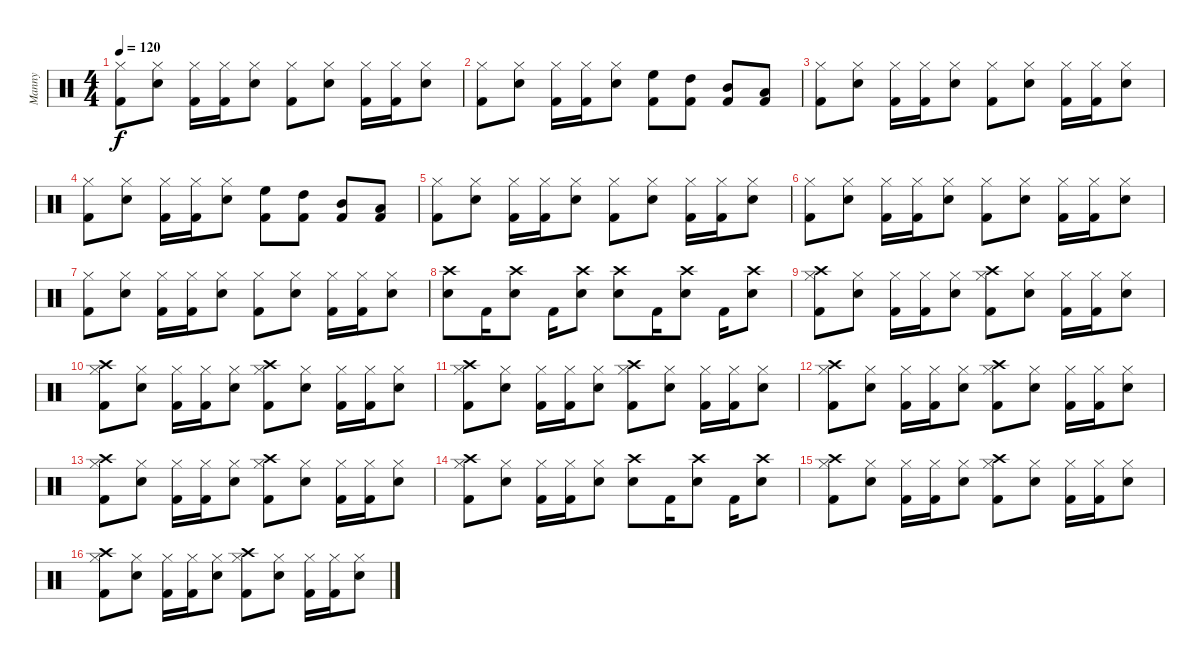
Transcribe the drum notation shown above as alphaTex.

\track ("Manny" "Manny") {instrument percussion}
\staff {score}
\articulation defaults
\ts (4 4)
\tempo 120
\clef neutral
\ks c
("Kick (hit) 2" "Hi-Hat (closed)").8{dy f} ("Snare (hit) 2" "Hi-Hat (closed)").8 ("Kick (hit) 2" "Hi-Hat (closed)").16 ("Kick (hit) 2" "Hi-Hat (closed)").16 ("Snare (hit) 2" "Hi-Hat (closed)").8 ("Kick (hit) 2" "Hi-Hat (closed)").8 ("Snare (hit) 2" "Hi-Hat (closed)").8 ("Kick (hit) 2" "Hi-Hat (closed)").16 ("Kick (hit) 2" "Hi-Hat (closed)").16 ("Snare (hit) 2" "Hi-Hat (closed)").8 |
("Kick (hit) 2" "Hi-Hat (closed)").8 ("Snare (hit) 2" "Hi-Hat (closed)").8 ("Kick (hit) 2" "Hi-Hat (closed)").16 ("Kick (hit) 2" "Hi-Hat (closed)").16 ("Snare (hit) 2" "Hi-Hat (closed)").8 ("Kick (hit) 2" "High Floor Tom (hit)").8 ("Kick (hit) 2" "High Tom (hit)").8 ("Kick (hit) 2" "Mid Tom (hit)").8 ("Kick (hit) 2" "Low Tom (hit)").8 |
("Kick (hit) 2" "Hi-Hat (closed)").8 ("Snare (hit) 2" "Hi-Hat (closed)").8 ("Kick (hit) 2" "Hi-Hat (closed)").16 ("Kick (hit) 2" "Hi-Hat (closed)").16 ("Snare (hit) 2" "Hi-Hat (closed)").8 ("Kick (hit) 2" "Hi-Hat (closed)").8 ("Snare (hit) 2" "Hi-Hat (closed)").8 ("Kick (hit) 2" "Hi-Hat (closed)").16 ("Kick (hit) 2" "Hi-Hat (closed)").16 ("Snare (hit) 2" "Hi-Hat (closed)").8 |
("Kick (hit) 2" "Hi-Hat (closed)").8 ("Snare (hit) 2" "Hi-Hat (closed)").8 ("Kick (hit) 2" "Hi-Hat (closed)").16 ("Kick (hit) 2" "Hi-Hat (closed)").16 ("Snare (hit) 2" "Hi-Hat (closed)").8 ("Kick (hit) 2" "High Floor Tom (hit)").8 ("Kick (hit) 2" "High Tom (hit)").8 ("Kick (hit) 2" "Mid Tom (hit)").8 ("Kick (hit) 2" "Low Tom (hit)").8 |
("Kick (hit) 2" "Hi-Hat (closed)").8 ("Snare (hit) 2" "Hi-Hat (closed)").8 ("Kick (hit) 2" "Hi-Hat (closed)").16 ("Kick (hit) 2" "Hi-Hat (closed)").16 ("Snare (hit) 2" "Hi-Hat (closed)").8 ("Kick (hit) 2" "Hi-Hat (closed)").8 ("Snare (hit) 2" "Hi-Hat (closed)").8 ("Kick (hit) 2" "Hi-Hat (closed)").16 ("Kick (hit) 2" "Hi-Hat (closed)").16 ("Snare (hit) 2" "Hi-Hat (closed)").8 |
("Kick (hit) 2" "Hi-Hat (closed)").8 ("Snare (hit) 2" "Hi-Hat (closed)").8 ("Kick (hit) 2" "Hi-Hat (closed)").16 ("Kick (hit) 2" "Hi-Hat (closed)").16 ("Snare (hit) 2" "Hi-Hat (closed)").8 ("Kick (hit) 2" "Hi-Hat (closed)").8 ("Snare (hit) 2" "Hi-Hat (closed)").8 ("Kick (hit) 2" "Hi-Hat (closed)").16 ("Kick (hit) 2" "Hi-Hat (closed)").16 ("Snare (hit) 2" "Hi-Hat (closed)").8 |
("Kick (hit) 2" "Hi-Hat (closed)").8 ("Snare (hit) 2" "Hi-Hat (closed)").8 ("Kick (hit) 2" "Hi-Hat (closed)").16 ("Kick (hit) 2" "Hi-Hat (closed)").16 ("Snare (hit) 2" "Hi-Hat (closed)").8 ("Kick (hit) 2" "Hi-Hat (closed)").8 ("Snare (hit) 2" "Hi-Hat (closed)").8 ("Kick (hit) 2" "Hi-Hat (closed)").16 ("Kick (hit) 2" "Hi-Hat (closed)").16 ("Snare (hit) 2" "Hi-Hat (closed)").8 |
("Snare (hit) 2" "Crash high (hit)").8 "Kick (hit) 2".16 ("Snare (hit) 2" "Crash high (hit)").8 "Kick (hit) 2".16 ("Snare (hit) 2" "Crash high (hit)").8 ("Snare (hit) 2" "Crash high (hit)").8 "Kick (hit) 2".16 ("Snare (hit) 2" "Crash high (hit)").8 "Kick (hit) 2".16 ("Snare (hit) 2" "Crash high (hit)").8 |
("Kick (hit) 2" "Crash high (hit)" "Hi-Hat (closed)").8 ("Snare (hit) 2" "Hi-Hat (closed)").8 ("Kick (hit) 2" "Hi-Hat (closed)").16 ("Kick (hit) 2" "Hi-Hat (closed)").16 ("Snare (hit) 2" "Hi-Hat (closed)").8 ("Kick (hit) 2" "Crash high (hit)" "Hi-Hat (closed)").8 ("Snare (hit) 2" "Hi-Hat (closed)").8 ("Kick (hit) 2" "Hi-Hat (closed)").16 ("Kick (hit) 2" "Hi-Hat (closed)").16 ("Snare (hit) 2" "Hi-Hat (closed)").8 |
("Kick (hit) 2" "Hi-Hat (closed)" "Crash high (hit)").8 ("Snare (hit) 2" "Hi-Hat (closed)").8 ("Kick (hit) 2" "Hi-Hat (closed)").16 ("Kick (hit) 2" "Hi-Hat (closed)").16 ("Snare (hit) 2" "Hi-Hat (closed)").8 ("Kick (hit) 2" "Hi-Hat (closed)" "Crash high (hit)").8 ("Snare (hit) 2" "Hi-Hat (closed)").8 ("Kick (hit) 2" "Hi-Hat (closed)").16 ("Kick (hit) 2" "Hi-Hat (closed)").16 ("Snare (hit) 2" "Hi-Hat (closed)").8 |
("Kick (hit) 2" "Crash high (hit)" "Hi-Hat (closed)").8 ("Snare (hit) 2" "Hi-Hat (closed)").8 ("Kick (hit) 2" "Hi-Hat (closed)").16 ("Kick (hit) 2" "Hi-Hat (closed)").16 ("Snare (hit) 2" "Hi-Hat (closed)").8 ("Kick (hit) 2" "Crash high (hit)" "Hi-Hat (closed)").8 ("Snare (hit) 2" "Hi-Hat (closed)").8 ("Kick (hit) 2" "Hi-Hat (closed)").16 ("Kick (hit) 2" "Hi-Hat (closed)").16 ("Snare (hit) 2" "Hi-Hat (closed)").8 |
("Kick (hit) 2" "Crash high (hit)" "Hi-Hat (closed)").8 ("Snare (hit) 2" "Hi-Hat (closed)").8 ("Kick (hit) 2" "Hi-Hat (closed)").16 ("Kick (hit) 2" "Hi-Hat (closed)").16 ("Snare (hit) 2" "Hi-Hat (closed)").8 ("Kick (hit) 2" "Crash high (hit)" "Hi-Hat (closed)").8 ("Snare (hit) 2" "Hi-Hat (closed)").8 ("Kick (hit) 2" "Hi-Hat (closed)").16 ("Kick (hit) 2" "Hi-Hat (closed)").16 ("Snare (hit) 2" "Hi-Hat (closed)").8 |
("Kick (hit) 2" "Crash high (hit)" "Hi-Hat (closed)").8 ("Snare (hit) 2" "Hi-Hat (closed)").8 ("Kick (hit) 2" "Hi-Hat (closed)").16 ("Kick (hit) 2" "Hi-Hat (closed)").16 ("Snare (hit) 2" "Hi-Hat (closed)").8 ("Kick (hit) 2" "Crash high (hit)" "Hi-Hat (closed)").8 ("Snare (hit) 2" "Hi-Hat (closed)").8 ("Kick (hit) 2" "Hi-Hat (closed)").16 ("Kick (hit) 2" "Hi-Hat (closed)").16 ("Snare (hit) 2" "Hi-Hat (closed)").8 |
("Kick (hit) 2" "Hi-Hat (closed)" "Crash high (hit)").8 ("Snare (hit) 2" "Hi-Hat (closed)").8 ("Kick (hit) 2" "Hi-Hat (closed)").16 ("Kick (hit) 2" "Hi-Hat (closed)").16 ("Snare (hit) 2" "Hi-Hat (closed)").8 ("Snare (hit) 2" "Crash high (hit)").8 "Kick (hit) 2".16 ("Snare (hit) 2" "Crash high (hit)").8 "Kick (hit) 2".16 ("Snare (hit) 2" "Crash high (hit)").8 |
("Kick (hit) 2" "Crash high (hit)" "Hi-Hat (closed)").8 ("Snare (hit) 2" "Hi-Hat (closed)").8 ("Kick (hit) 2" "Hi-Hat (closed)").16 ("Kick (hit) 2" "Hi-Hat (closed)").16 ("Snare (hit) 2" "Hi-Hat (closed)").8 ("Kick (hit) 2" "Crash high (hit)" "Hi-Hat (closed)").8 ("Snare (hit) 2" "Hi-Hat (closed)").8 ("Kick (hit) 2" "Hi-Hat (closed)").16 ("Kick (hit) 2" "Hi-Hat (closed)").16 ("Snare (hit) 2" "Hi-Hat (closed)").8 |
("Kick (hit) 2" "Crash high (hit)" "Hi-Hat (closed)").8 ("Snare (hit) 2" "Hi-Hat (closed)").8 ("Kick (hit) 2" "Hi-Hat (closed)").16 ("Kick (hit) 2" "Hi-Hat (closed)").16 ("Snare (hit) 2" "Hi-Hat (closed)").8 ("Kick (hit) 2" "Crash high (hit)" "Hi-Hat (closed)").8 ("Snare (hit) 2" "Hi-Hat (closed)").8 ("Kick (hit) 2" "Hi-Hat (closed)").16 ("Kick (hit) 2" "Hi-Hat (closed)").16 ("Snare (hit) 2" "Hi-Hat (closed)").8
